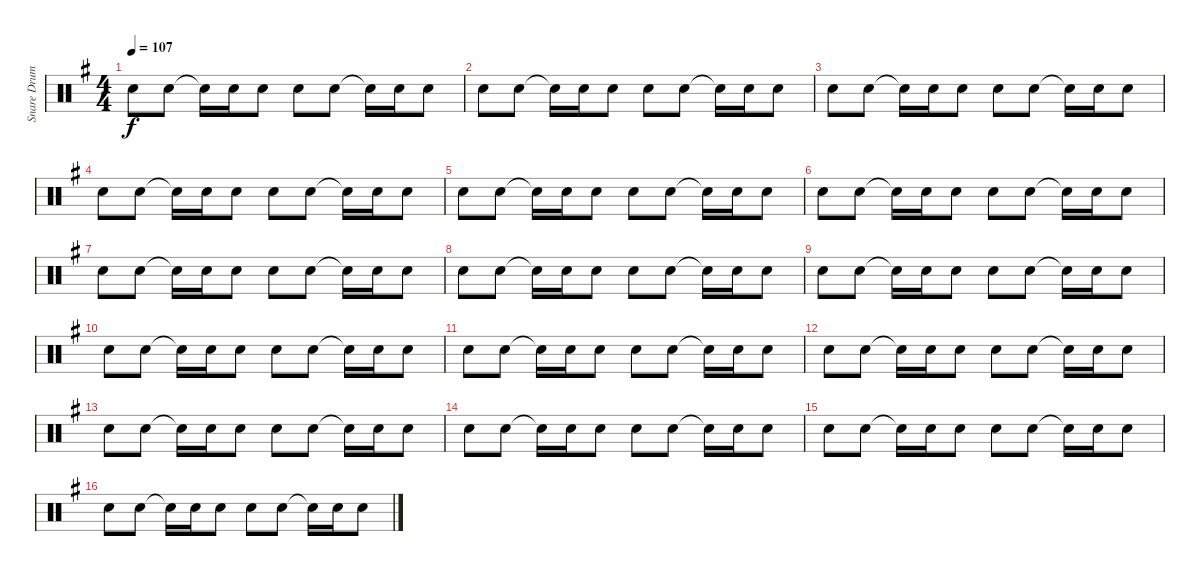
\track ("Snare Drum" "Snare Drum") {instrument percussion}
\staff {score}
\articulation defaults
\ts (4 4)
\tempo 107
\clef neutral
\ks g "Snare (hit) 2".8{dy f} "Snare (hit) 2".8 "Snare (hit) 2"{t}.16 "Snare (hit) 2".16 "Snare (hit) 2".8 "Snare (hit) 2".8 "Snare (hit) 2".8 "Snare (hit) 2"{t}.16 "Snare (hit) 2".16 "Snare (hit) 2".8
|
"Snare (hit) 2".8 "Snare (hit) 2".8 "Snare (hit) 2"{t}.16 "Snare (hit) 2".16 "Snare (hit) 2".8 "Snare (hit) 2".8 "Snare (hit) 2".8 "Snare (hit) 2"{t}.16 "Snare (hit) 2".16 "Snare (hit) 2".8 |
"Snare (hit) 2".8 "Snare (hit) 2".8 "Snare (hit) 2"{t}.16 "Snare (hit) 2".16 "Snare (hit) 2".8 "Snare (hit) 2".8 "Snare (hit) 2".8 "Snare (hit) 2"{t}.16 "Snare (hit) 2".16 "Snare (hit) 2".8 |
"Snare (hit) 2".8 "Snare (hit) 2".8 "Snare (hit) 2"{t}.16 "Snare (hit) 2".16 "Snare (hit) 2".8 "Snare (hit) 2".8 "Snare (hit) 2".8 "Snare (hit) 2"{t}.16 "Snare (hit) 2".16 "Snare (hit) 2".8 |
"Snare (hit) 2".8 "Snare (hit) 2".8 "Snare (hit) 2"{t}.16 "Snare (hit) 2".16 "Snare (hit) 2".8 "Snare (hit) 2".8 "Snare (hit) 2".8 "Snare (hit) 2"{t}.16 "Snare (hit) 2".16 "Snare (hit) 2".8 |
"Snare (hit) 2".8 "Snare (hit) 2".8 "Snare (hit) 2"{t}.16 "Snare (hit) 2".16 "Snare (hit) 2".8 "Snare (hit) 2".8 "Snare (hit) 2".8 "Snare (hit) 2"{t}.16 "Snare (hit) 2".16 "Snare (hit) 2".8 |
"Snare (hit) 2".8 "Snare (hit) 2".8 "Snare (hit) 2"{t}.16 "Snare (hit) 2".16 "Snare (hit) 2".8 "Snare (hit) 2".8 "Snare (hit) 2".8 "Snare (hit) 2"{t}.16 "Snare (hit) 2".16 "Snare (hit) 2".8 |
"Snare (hit) 2".8 "Snare (hit) 2".8 "Snare (hit) 2"{t}.16 "Snare (hit) 2".16 "Snare (hit) 2".8 "Snare (hit) 2".8 "Snare (hit) 2".8 "Snare (hit) 2"{t}.16 "Snare (hit) 2".16 "Snare (hit) 2".8 |
"Snare (hit) 2".8 "Snare (hit) 2".8 "Snare (hit) 2"{t}.16 "Snare (hit) 2".16 "Snare (hit) 2".8 "Snare (hit) 2".8 "Snare (hit) 2".8 "Snare (hit) 2"{t}.16 "Snare (hit) 2".16 "Snare (hit) 2".8 |
"Snare (hit) 2".8 "Snare (hit) 2".8 "Snare (hit) 2"{t}.16 "Snare (hit) 2".16 "Snare (hit) 2".8 "Snare (hit) 2".8 "Snare (hit) 2".8 "Snare (hit) 2"{t}.16 "Snare (hit) 2".16 "Snare (hit) 2".8 |
"Snare (hit) 2".8 "Snare (hit) 2".8 "Snare (hit) 2"{t}.16 "Snare (hit) 2".16 "Snare (hit) 2".8 "Snare (hit) 2".8 "Snare (hit) 2".8 "Snare (hit) 2"{t}.16 "Snare (hit) 2".16 "Snare (hit) 2".8 |
"Snare (hit) 2".8 "Snare (hit) 2".8 "Snare (hit) 2"{t}.16 "Snare (hit) 2".16 "Snare (hit) 2".8 "Snare (hit) 2".8 "Snare (hit) 2".8 "Snare (hit) 2"{t}.16 "Snare (hit) 2".16 "Snare (hit) 2".8 |
"Snare (hit) 2".8 "Snare (hit) 2".8 "Snare (hit) 2"{t}.16 "Snare (hit) 2".16 "Snare (hit) 2".8 "Snare (hit) 2".8 "Snare (hit) 2".8 "Snare (hit) 2"{t}.16 "Snare (hit) 2".16 "Snare (hit) 2".8 |
"Snare (hit) 2".8 "Snare (hit) 2".8 "Snare (hit) 2"{t}.16 "Snare (hit) 2".16 "Snare (hit) 2".8 "Snare (hit) 2".8 "Snare (hit) 2".8 "Snare (hit) 2"{t}.16 "Snare (hit) 2".16 "Snare (hit) 2".8 |
"Snare (hit) 2".8 "Snare (hit) 2".8 "Snare (hit) 2"{t}.16 "Snare (hit) 2".16 "Snare (hit) 2".8 "Snare (hit) 2".8 "Snare (hit) 2".8 "Snare (hit) 2"{t}.16 "Snare (hit) 2".16 "Snare (hit) 2".8 |
"Snare (hit) 2".8 "Snare (hit) 2".8 "Snare (hit) 2"{t}.16 "Snare (hit) 2".16 "Snare (hit) 2".8 "Snare (hit) 2".8 "Snare (hit) 2".8 "Snare (hit) 2"{t}.16 "Snare (hit) 2".16 "Snare (hit) 2".8
